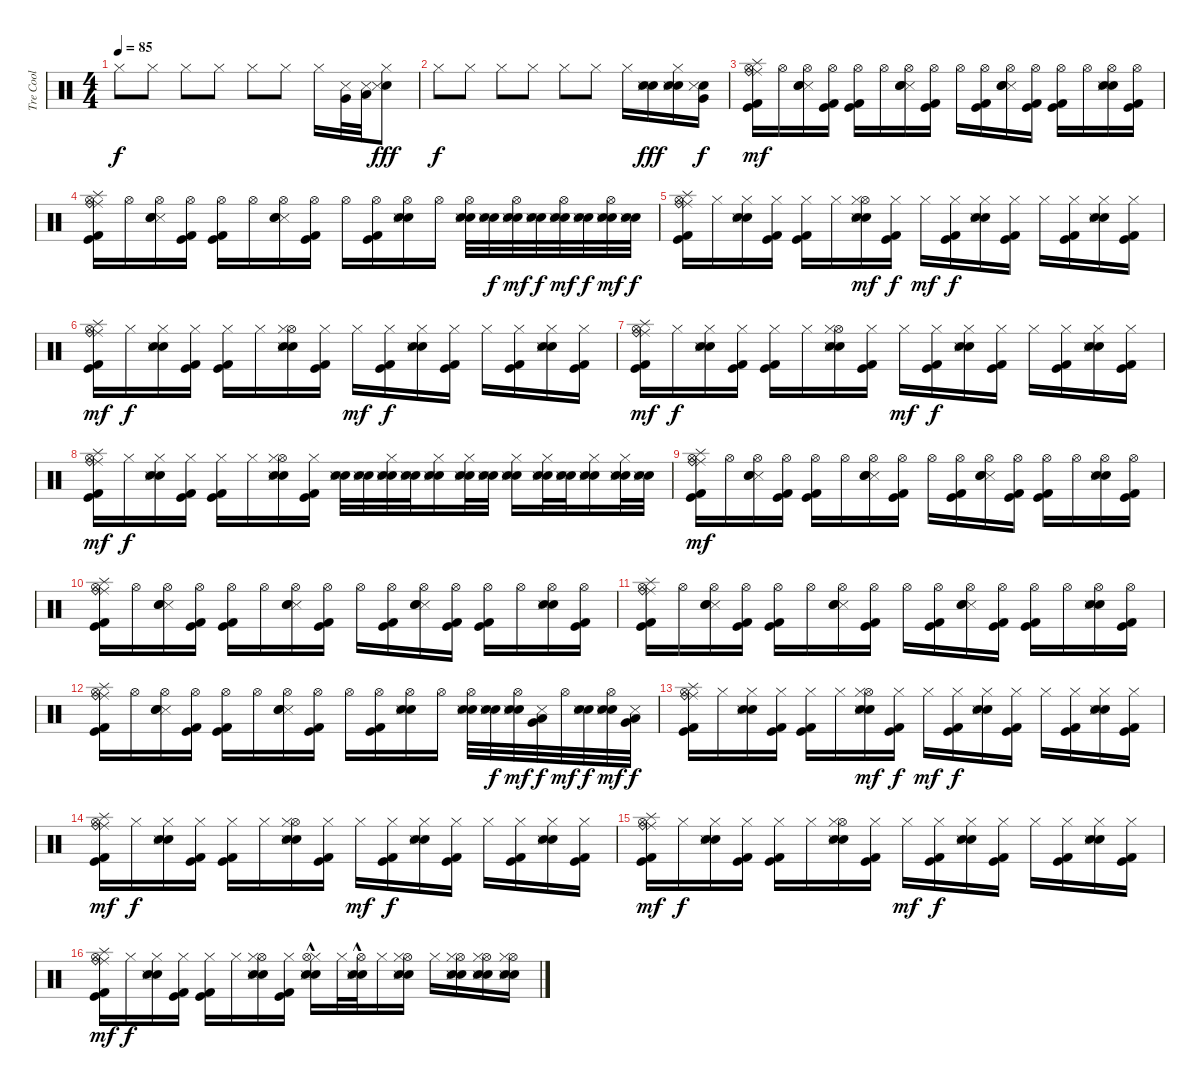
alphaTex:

\track ("Tre Cool" "Tre Cool") {instrument percussion}
\staff {score}
\articulation defaults
\ts (4 4)
\tempo 85
\clef neutral
\ks c "Hi-Hat (closed)".8{dy f} "Hi-Hat (closed)".8 "Hi-Hat (closed)".8 "Hi-Hat (closed)".8 "Hi-Hat (closed)".8 "Hi-Hat (closed)".8 "Hi-Hat (closed)".16
("Very Low Tom (hit)" "Metronome (hit)").32 ("Low Tom (hit)" "Metronome (hit)").32 ("Snare (hit) 2" "Hi-Hat (closed)" "Metronome (hit)").8{dy fff} |
"Hi-Hat (closed)".8{dy f} "Hi-Hat (closed)".8 "Hi-Hat (closed)".8 "Hi-Hat (closed)".8 "Hi-Hat (closed)".8 "Hi-Hat (closed)".8 "Hi-Hat (closed)".16 ("Electric Snare (hit)" "Snare (hit) 2" "Metronome (hit)").16{dy fff} ("Snare (hit) 2" "Electric Snare (hit)" "Hi-Hat (closed)" "Metronome (hit)").16 ("Snare (hit) 2" "Very Low Tom (hit)" "Metronome (hit)").16{dy f} |
("Hi-Hat (open)" "Splash (hit)" "Ride (middle)" "Kick (hit)" "Kick (hit) 2" "Ride (bell)").16{dy mf} "Hi-Hat (open)".16 ("Hi-Hat (open)" "Metronome (hit)" "Snare (hit) 2" "Electric Snare (hit)").16 ("Hi-Hat (open)" "Kick (hit) 2" "Kick (hit)").16 ("Hi-Hat (open)" "Kick (hit) 2" "Kick (hit)").16 "Hi-Hat (open)".16 ("Hi-Hat (open)" "Metronome (hit)" "Snare (hit) 2" "Electric Snare (hit)").16 ("Hi-Hat (open)" "Kick (hit) 2" "Kick (hit)").16 "Hi-Hat (open)".16 ("Hi-Hat (open)" "Kick (hit)" "Kick (hit) 2").16 ("Hi-Hat (open)" "Metronome (hit)" "Electric Snare (hit)" "Snare (hit) 2").16 ("Hi-Hat (open)" "Kick (hit)" "Kick (hit) 2").16 ("Hi-Hat (open)" "Kick (hit)" "Kick (hit) 2").16 "Hi-Hat (open)".16 ("Hi-Hat (open)" "Electric Snare (hit)" "Metronome (hit)" "Snare (hit) 2").16 ("Hi-Hat (open)" "Kick (hit)" "Kick (hit) 2").16 |
("Hi-Hat (open)" "Splash (hit)" "Ride (middle)" "Kick (hit)" "Kick (hit) 2" "Ride (bell)").16 "Hi-Hat (open)".16 ("Hi-Hat (open)" "Metronome (hit)" "Snare (hit) 2" "Electric Snare (hit)").16 ("Hi-Hat (open)" "Kick (hit) 2" "Kick (hit)").16 ("Hi-Hat (open)" "Kick (hit) 2" "Kick (hit)").16 "Hi-Hat (open)".16 ("Hi-Hat (open)" "Metronome (hit)" "Snare (hit) 2" "Electric Snare (hit)").16 ("Hi-Hat (open)" "Kick (hit) 2" "Kick (hit)").16 "Hi-Hat (open)".16 ("Hi-Hat (open)" "Kick (hit)" "Kick (hit) 2").16 ("Snare (hit) 2" "Hi-Hat (open)" "Metronome (hit)" "Electric Snare (hit)").16 "Hi-Hat (open)".16 ("Electric Snare (hit)" "Metronome (hit)" "Snare (hit) 2" "Hi-Hat (open)").32 ("Electric Snare (hit)" "Metronome (hit)" "Snare (hit) 2").32{dy f} ("Electric Snare (hit)" "Metronome (hit)" "Snare (hit) 2" "Hi-Hat (open)").32{dy mf} ("Electric Snare (hit)" "Metronome (hit)" "Snare (hit) 2").32{dy f} ("Electric Snare (hit)" "Metronome (hit)" "Snare (hit) 2" "Hi-Hat (open)").32{dy mf} ("Electric Snare (hit)" "Metronome (hit)" "Snare (hit) 2").32{dy f} ("Electric Snare (hit)" "Metronome (hit)" "Snare (hit) 2" "Hi-Hat (open)").32{dy mf} ("Electric Snare (hit)" "Metronome (hit)" "Snare (hit) 2").32{dy f} |
("Kick (hit)" "Kick (hit) 2" "Hi-Hat (open)" "Splash (hit)" "Ride (middle)" "Ride (bell)").16 "Hi-Hat (closed)".16 ("Electric Snare (hit)" "Snare (hit) 2" "Metronome (hit)" "Hi-Hat (closed)").16 ("Kick (hit)" "Kick (hit) 2" "Hi-Hat (closed)").16 ("Kick (hit)" "Kick (hit) 2" "Hi-Hat (closed)").16 "Hi-Hat (closed)".16 ("Hi-Hat (open)" "Electric Snare (hit)" "Metronome (hit)" "Snare (hit) 2" "Hi-Hat (closed)").16{dy mf} ("Hi-Hat (closed)" "Kick (hit)" "Kick (hit) 2").16{dy f} "Hi-Hat (closed)".16{dy mf} ("Kick (hit)" "Kick (hit) 2" "Hi-Hat (closed)").16{dy f} ("Electric Snare (hit)" "Metronome (hit)" "Snare (hit) 2" "Hi-Hat (closed)").16 ("Kick (hit)" "Kick (hit) 2" "Hi-Hat (closed)").16 "Hi-Hat (closed)".16 ("Kick (hit)" "Kick (hit) 2" "Hi-Hat (closed)").16 ("Hand Clap (hit)" "Metronome (hit)" "Snare (hit) 2" "Hi-Hat (closed)").16 ("Kick (hit)" "Kick (hit) 2" "Hi-Hat (closed)").16 |
("Hi-Hat (open)" "Ride (middle)" "Ride (bell)" "Splash (hit)" "Kick (hit)" "Kick (hit) 2").16{dy mf} "Hi-Hat (closed)".16{dy f} ("Electric Snare (hit)" "Snare (hit) 2" "Metronome (hit)" "Hi-Hat (closed)").16 ("Kick (hit)" "Kick (hit) 2" "Hi-Hat (closed)").16 ("Kick (hit)" "Kick (hit) 2" "Hi-Hat (closed)").16 "Hi-Hat (closed)".16 ("Hi-Hat (open)" "Electric Snare (hit)" "Metronome (hit)" "Snare (hit) 2" "Hi-Hat (closed)").16 ("Kick (hit)" "Kick (hit) 2" "Hi-Hat (closed)").16 "Hi-Hat (closed)".16{dy mf} ("Kick (hit)" "Kick (hit) 2" "Hi-Hat (closed)").16{dy f} ("Electric Snare (hit)" "Metronome (hit)" "Snare (hit) 2" "Hi-Hat (closed)").16 ("Kick (hit)" "Kick (hit) 2" "Hi-Hat (closed)").16 "Hi-Hat (closed)".16 ("Kick (hit)" "Kick (hit) 2" "Hi-Hat (closed)").16 ("Hand Clap (hit)" "Metronome (hit)" "Snare (hit) 2" "Hi-Hat (closed)").16 ("Kick (hit)" "Kick (hit) 2" "Hi-Hat (closed)").16 |
("Hi-Hat (open)" "Ride (middle)" "Ride (bell)" "Splash (hit)" "Kick (hit)" "Kick (hit) 2").16{dy mf} "Hi-Hat (closed)".16{dy f} ("Electric Snare (hit)" "Snare (hit) 2" "Metronome (hit)" "Hi-Hat (closed)").16 ("Kick (hit)" "Kick (hit) 2" "Hi-Hat (closed)").16 ("Kick (hit)" "Kick (hit) 2" "Hi-Hat (closed)").16 "Hi-Hat (closed)".16 ("Hi-Hat (open)" "Electric Snare (hit)" "Metronome (hit)" "Snare (hit) 2" "Hi-Hat (closed)").16 ("Kick (hit)" "Kick (hit) 2" "Hi-Hat (closed)").16 "Hi-Hat (closed)".16{dy mf} ("Kick (hit)" "Kick (hit) 2" "Hi-Hat (closed)").16{dy f} ("Electric Snare (hit)" "Metronome (hit)" "Snare (hit) 2" "Hi-Hat (closed)").16 ("Kick (hit)" "Kick (hit) 2" "Hi-Hat (closed)").16 "Hi-Hat (closed)".16 ("Kick (hit)" "Kick (hit) 2" "Hi-Hat (closed)").16 ("Hand Clap (hit)" "Metronome (hit)" "Snare (hit) 2" "Hi-Hat (closed)").16 ("Kick (hit)" "Kick (hit) 2" "Hi-Hat (closed)").16 |
("Hi-Hat (open)" "Ride (middle)" "Ride (bell)" "Splash (hit)" "Kick (hit)" "Kick (hit) 2").16{dy mf} "Hi-Hat (closed)".16{dy f} ("Electric Snare (hit)" "Snare (hit) 2" "Metronome (hit)" "Hi-Hat (closed)").16 ("Kick (hit)" "Kick (hit) 2" "Hi-Hat (closed)").16 ("Kick (hit)" "Kick (hit) 2" "Hi-Hat (closed)").16 "Hi-Hat (closed)".16 ("Hi-Hat (open)" "Electric Snare (hit)" "Metronome (hit)" "Snare (hit) 2" "Hi-Hat (closed)").16 ("Kick (hit)" "Kick (hit) 2" "Hi-Hat (closed)").16 ("Electric Snare (hit)" "Snare (hit) 2" "Metronome (hit)").32 ("Electric Snare (hit)" "Snare (hit) 2" "Metronome (hit)").32 ("Electric Snare (hit)" "Snare (hit) 2" "Metronome (hit)" "Hi-Hat (closed)").32 ("Electric Snare (hit)" "Snare (hit) 2" "Metronome (hit)").32 ("Electric Snare (hit)" "Snare (hit) 2" "Metronome (hit)" "Hi-Hat (closed)").16 ("Electric Snare (hit)" "Snare (hit) 2" "Metronome (hit)" "Hi-Hat (closed)").32 ("Electric Snare (hit)" "Snare (hit) 2" "Metronome (hit)").32 ("Electric Snare (hit)" "Snare (hit) 2" "Metronome (hit)" "Hi-Hat (closed)").16 ("Electric Snare (hit)" "Snare (hit) 2" "Metronome (hit)" "Hi-Hat (closed)").32 ("Electric Snare (hit)" "Snare (hit) 2" "Metronome (hit)").32 ("Electric Snare (hit)" "Snare (hit) 2" "Metronome (hit)" "Hi-Hat (closed)").16 ("Electric Snare (hit)" "Snare (hit) 2" "Metronome (hit)" "Hi-Hat (closed)").32 ("Electric Snare (hit)" "Snare (hit) 2" "Metronome (hit)").32 |
("Hi-Hat (open)" "Splash (hit)" "Ride (middle)" "Kick (hit)" "Kick (hit) 2" "Ride (bell)").16{dy mf} "Hi-Hat (open)".16 ("Hi-Hat (open)" "Metronome (hit)" "Snare (hit) 2" "Electric Snare (hit)").16 ("Hi-Hat (open)" "Kick (hit) 2" "Kick (hit)").16 ("Hi-Hat (open)" "Kick (hit) 2" "Kick (hit)").16 "Hi-Hat (open)".16 ("Hi-Hat (open)" "Metronome (hit)" "Snare (hit) 2" "Electric Snare (hit)").16 ("Hi-Hat (open)" "Kick (hit) 2" "Kick (hit)").16 "Hi-Hat (open)".16 ("Hi-Hat (open)" "Kick (hit)" "Kick (hit) 2").16 ("Hi-Hat (open)" "Metronome (hit)" "Electric Snare (hit)" "Snare (hit) 2").16 ("Hi-Hat (open)" "Kick (hit)" "Kick (hit) 2").16 ("Hi-Hat (open)" "Kick (hit)" "Kick (hit) 2").16 "Hi-Hat (open)".16 ("Hi-Hat (open)" "Electric Snare (hit)" "Metronome (hit)" "Snare (hit) 2").16 ("Hi-Hat (open)" "Kick (hit)" "Kick (hit) 2").16 |
("Hi-Hat (open)" "Splash (hit)" "Ride (middle)" "Kick (hit)" "Kick (hit) 2" "Ride (bell)").16 "Hi-Hat (open)".16 ("Hi-Hat (open)" "Metronome (hit)" "Snare (hit) 2" "Electric Snare (hit)").16 ("Hi-Hat (open)" "Kick (hit) 2" "Kick (hit)").16 ("Hi-Hat (open)" "Kick (hit) 2" "Kick (hit)").16 "Hi-Hat (open)".16 ("Hi-Hat (open)" "Metronome (hit)" "Snare (hit) 2" "Electric Snare (hit)").16 ("Hi-Hat (open)" "Kick (hit) 2" "Kick (hit)").16 "Hi-Hat (open)".16 ("Hi-Hat (open)" "Kick (hit)" "Kick (hit) 2").16 ("Hi-Hat (open)" "Metronome (hit)" "Electric Snare (hit)" "Snare (hit) 2").16 ("Hi-Hat (open)" "Kick (hit)" "Kick (hit) 2").16 ("Hi-Hat (open)" "Kick (hit)" "Kick (hit) 2").16 "Hi-Hat (open)".16 ("Hi-Hat (open)" "Electric Snare (hit)" "Metronome (hit)" "Snare (hit) 2").16 ("Hi-Hat (open)" "Kick (hit)" "Kick (hit) 2").16 |
("Hi-Hat (open)" "Splash (hit)" "Ride (middle)" "Kick (hit)" "Kick (hit) 2" "Ride (bell)").16 "Hi-Hat (open)".16 ("Hi-Hat (open)" "Metronome (hit)" "Snare (hit) 2" "Electric Snare (hit)").16 ("Hi-Hat (open)" "Kick (hit) 2" "Kick (hit)").16 ("Hi-Hat (open)" "Kick (hit) 2" "Kick (hit)").16 "Hi-Hat (open)".16 ("Hi-Hat (open)" "Metronome (hit)" "Snare (hit) 2" "Electric Snare (hit)").16 ("Hi-Hat (open)" "Kick (hit) 2" "Kick (hit)").16 "Hi-Hat (open)".16 ("Hi-Hat (open)" "Kick (hit)" "Kick (hit) 2").16 ("Hi-Hat (open)" "Metronome (hit)" "Electric Snare (hit)" "Snare (hit) 2").16 ("Hi-Hat (open)" "Kick (hit)" "Kick (hit) 2").16 ("Hi-Hat (open)" "Kick (hit)" "Kick (hit) 2").16 "Hi-Hat (open)".16 ("Hi-Hat (open)" "Electric Snare (hit)" "Metronome (hit)" "Snare (hit) 2").16 ("Hi-Hat (open)" "Kick (hit)" "Kick (hit) 2").16 |
("Hi-Hat (open)" "Splash (hit)" "Ride (middle)" "Kick (hit)" "Kick (hit) 2" "Ride (bell)").16 "Hi-Hat (open)".16 ("Hi-Hat (open)" "Metronome (hit)" "Snare (hit) 2" "Electric Snare (hit)").16 ("Hi-Hat (open)" "Kick (hit) 2" "Kick (hit)").16 ("Hi-Hat (open)" "Kick (hit) 2" "Kick (hit)").16 "Hi-Hat (open)".16 ("Hi-Hat (open)" "Metronome (hit)" "Snare (hit) 2" "Electric Snare (hit)").16 ("Hi-Hat (open)" "Kick (hit) 2" "Kick (hit)").16 "Hi-Hat (open)".16 ("Hi-Hat (open)" "Kick (hit)" "Kick (hit) 2").16 ("Snare (hit) 2" "Hi-Hat (open)" "Metronome (hit)" "Electric Snare (hit)").16 "Hi-Hat (open)".16 ("Electric Snare (hit)" "Metronome (hit)" "Snare (hit) 2" "Hi-Hat (open)").32 ("Electric Snare (hit)" "Metronome (hit)" "Snare (hit) 2").32{dy f} ("Electric Snare (hit)" "Metronome (hit)" "Snare (hit) 2" "Hi-Hat (open)").32{dy mf} ("Metronome (hit)" "Low Tom (hit)" "Very Low Tom (hit)").32{dy f} "Hi-Hat (open)".32{dy mf} ("Electric Snare (hit)" "Metronome (hit)" "Snare (hit) 2").32{dy f} ("Electric Snare (hit)" "Metronome (hit)" "Snare (hit) 2" "Hi-Hat (open)").32{dy mf} ("Low Tom (hit)" "Very Low Tom (hit)" "Metronome (hit)").32{dy f} |
("Kick (hit)" "Kick (hit) 2" "Hi-Hat (open)" "Splash (hit)" "Ride (middle)" "Ride (bell)").16 "Hi-Hat (closed)".16 ("Electric Snare (hit)" "Snare (hit) 2" "Metronome (hit)" "Hi-Hat (closed)").16 ("Kick (hit)" "Kick (hit) 2" "Hi-Hat (closed)").16 ("Kick (hit)" "Kick (hit) 2" "Hi-Hat (closed)").16 "Hi-Hat (closed)".16 ("Hi-Hat (open)" "Electric Snare (hit)" "Metronome (hit)" "Snare (hit) 2" "Hi-Hat (closed)").16{dy mf} ("Kick (hit)" "Kick (hit) 2" "Hi-Hat (closed)").16{dy f} "Hi-Hat (closed)".16{dy mf} ("Kick (hit)" "Kick (hit) 2" "Hi-Hat (closed)").16{dy f} ("Electric Snare (hit)" "Metronome (hit)" "Snare (hit) 2" "Hi-Hat (closed)").16 ("Kick (hit)" "Kick (hit) 2" "Hi-Hat (closed)").16 "Hi-Hat (closed)".16 ("Kick (hit)" "Kick (hit) 2" "Hi-Hat (closed)").16 ("Hand Clap (hit)" "Metronome (hit)" "Snare (hit) 2" "Hi-Hat (closed)").16 ("Kick (hit)" "Kick (hit) 2" "Hi-Hat (closed)").16 |
("Hi-Hat (open)" "Ride (middle)" "Ride (bell)" "Splash (hit)" "Kick (hit)" "Kick (hit) 2").16{dy mf} "Hi-Hat (closed)".16{dy f} ("Electric Snare (hit)" "Snare (hit) 2" "Metronome (hit)" "Hi-Hat (closed)").16 ("Kick (hit)" "Kick (hit) 2" "Hi-Hat (closed)").16 ("Kick (hit)" "Kick (hit) 2" "Hi-Hat (closed)").16 "Hi-Hat (closed)".16 ("Hi-Hat (open)" "Electric Snare (hit)" "Metronome (hit)" "Snare (hit) 2" "Hi-Hat (closed)").16 ("Kick (hit)" "Kick (hit) 2" "Hi-Hat (closed)").16 "Hi-Hat (closed)".16{dy mf} ("Kick (hit)" "Kick (hit) 2" "Hi-Hat (closed)").16{dy f} ("Electric Snare (hit)" "Metronome (hit)" "Snare (hit) 2" "Hi-Hat (closed)").16 ("Kick (hit)" "Kick (hit) 2" "Hi-Hat (closed)").16 "Hi-Hat (closed)".16 ("Kick (hit)" "Kick (hit) 2" "Hi-Hat (closed)").16 ("Hand Clap (hit)" "Metronome (hit)" "Snare (hit) 2" "Hi-Hat (closed)").16 ("Kick (hit)" "Kick (hit) 2" "Hi-Hat (closed)").16 |
("Hi-Hat (open)" "Ride (middle)" "Ride (bell)" "Splash (hit)" "Kick (hit)" "Kick (hit) 2").16{dy mf} "Hi-Hat (closed)".16{dy f} ("Electric Snare (hit)" "Snare (hit) 2" "Metronome (hit)" "Hi-Hat (closed)").16 ("Kick (hit)" "Kick (hit) 2" "Hi-Hat (closed)").16 ("Kick (hit)" "Kick (hit) 2" "Hi-Hat (closed)").16 "Hi-Hat (closed)".16 ("Hi-Hat (open)" "Electric Snare (hit)" "Metronome (hit)" "Snare (hit) 2" "Hi-Hat (closed)").16 ("Kick (hit)" "Kick (hit) 2" "Hi-Hat (closed)").16 "Hi-Hat (closed)".16{dy mf} ("Kick (hit)" "Kick (hit) 2" "Hi-Hat (closed)").16{dy f} ("Electric Snare (hit)" "Metronome (hit)" "Snare (hit) 2" "Hi-Hat (closed)").16 ("Kick (hit)" "Kick (hit) 2" "Hi-Hat (closed)").16 "Hi-Hat (closed)".16 ("Kick (hit)" "Kick (hit) 2" "Hi-Hat (closed)").16 ("Hand Clap (hit)" "Metronome (hit)" "Snare (hit) 2" "Hi-Hat (closed)").16 ("Kick (hit)" "Kick (hit) 2" "Hi-Hat (closed)").16 |
("Hi-Hat (open)" "Ride (middle)" "Ride (bell)" "Splash (hit)" "Kick (hit)" "Kick (hit) 2").16{dy mf} "Hi-Hat (closed)".16{dy f} ("Electric Snare (hit)" "Snare (hit) 2" "Metronome (hit)" "Hi-Hat (closed)").16 ("Kick (hit)" "Kick (hit) 2" "Hi-Hat (closed)").16 ("Kick (hit)" "Kick (hit) 2" "Hi-Hat (closed)").16 "Hi-Hat (closed)".16 ("Hi-Hat (open)" "Electric Snare (hit)" "Metronome (hit)" "Snare (hit) 2" "Hi-Hat (closed)").16 ("Kick (hit)" "Kick (hit) 2" "Hi-Hat (closed)").16 ("Electric Snare (hit)"{hac} "Hi-Hat (closed)" "Snare (hit) 2"{hac} "Metronome (hit)"{hac} "Hi-Hat (open)").16 "Hi-Hat (closed)".32 ("Electric Snare (hit)"{hac} "Metronome (hit)"{hac} "Hi-Hat (open)"{hac} "Snare (hit) 2"{hac}).32 "Hi-Hat (closed)".16 ("Electric Snare (hit)" "Snare (hit) 2" "Metronome (hit)" "Hi-Hat (open)" "Hi-Hat (closed)").16 "Hi-Hat (closed)".16 ("Electric Snare (hit)" "Snare (hit) 2" "Metronome (hit)" "Hi-Hat (open)" "Hi-Hat (closed)").16 ("Electric Snare (hit)" "Snare (hit) 2" "Metronome (hit)" "Hi-Hat (open)" "Hi-Hat (closed)").16 ("Electric Snare (hit)" "Snare (hit) 2" "Metronome (hit)" "Hi-Hat (open)" "Hi-Hat (closed)").16
